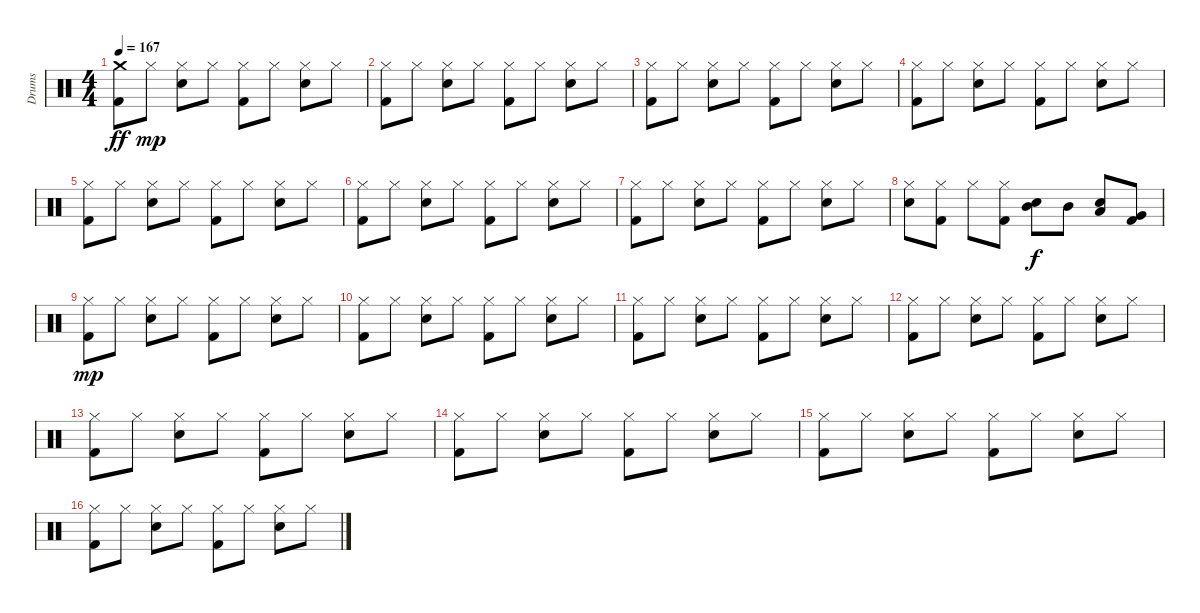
\track ("Drums" "Drums") {instrument percussion}
\staff {score}
\articulation defaults
\ts (4 4)
\tempo 167
\clef neutral
\ks c
("Crash medium (hit)" "Kick (hit) 2").8{dy ff} "Hi-Hat (closed)".8{dy mp} ("Hi-Hat (closed)" "Snare (hit) 2").8 "Hi-Hat (closed)".8 ("Hi-Hat (closed)" "Kick (hit) 2").8 "Hi-Hat (closed)".8 ("Hi-Hat (closed)" "Snare (hit) 2").8 "Hi-Hat (closed)".8 |
("Hi-Hat (closed)" "Kick (hit) 2").8 "Hi-Hat (closed)".8 ("Hi-Hat (closed)" "Snare (hit) 2").8 "Hi-Hat (closed)".8 ("Hi-Hat (closed)" "Kick (hit) 2").8 "Hi-Hat (closed)".8 ("Hi-Hat (closed)" "Snare (hit) 2").8 "Hi-Hat (closed)".8 |
("Hi-Hat (closed)" "Kick (hit) 2").8 "Hi-Hat (closed)".8 ("Hi-Hat (closed)" "Snare (hit) 2").8 "Hi-Hat (closed)".8 ("Hi-Hat (closed)" "Kick (hit) 2").8 "Hi-Hat (closed)".8 ("Hi-Hat (closed)" "Snare (hit) 2").8 "Hi-Hat (closed)".8 |
("Hi-Hat (closed)" "Kick (hit) 2").8 "Hi-Hat (closed)".8 ("Hi-Hat (closed)" "Snare (hit) 2").8 "Hi-Hat (closed)".8 ("Hi-Hat (closed)" "Kick (hit) 2").8 "Hi-Hat (closed)".8 ("Hi-Hat (closed)" "Snare (hit) 2").8 "Hi-Hat (closed)".8 |
("Hi-Hat (closed)" "Kick (hit) 2").8 "Hi-Hat (closed)".8 ("Hi-Hat (closed)" "Snare (hit) 2").8 "Hi-Hat (closed)".8 ("Hi-Hat (closed)" "Kick (hit) 2").8 "Hi-Hat (closed)".8 ("Hi-Hat (closed)" "Snare (hit) 2").8 "Hi-Hat (closed)".8 |
("Hi-Hat (closed)" "Kick (hit) 2").8 "Hi-Hat (closed)".8 ("Hi-Hat (closed)" "Snare (hit) 2").8 "Hi-Hat (closed)".8 ("Hi-Hat (closed)" "Kick (hit) 2").8 "Hi-Hat (closed)".8 ("Hi-Hat (closed)" "Snare (hit) 2").8 "Hi-Hat (closed)".8 |
("Hi-Hat (closed)" "Kick (hit) 2").8 "Hi-Hat (closed)".8 ("Hi-Hat (closed)" "Snare (hit) 2").8 "Hi-Hat (closed)".8 ("Hi-Hat (closed)" "Kick (hit) 2").8 "Hi-Hat (closed)".8 ("Hi-Hat (closed)" "Snare (hit) 2").8 "Hi-Hat (closed)".8 |
("Hi-Hat (closed)" "Snare (hit) 2").8 ("Hi-Hat (closed)" "Kick (hit) 2").8 "Hi-Hat (closed)".8 ("Hi-Hat (closed)" "Kick (hit) 2").8 ("Mid Tom (hit)" "Snare (hit) 2").8{dy f} "Mid Tom (hit)".8 ("Low Tom (hit)" "Snare (hit) 2").8 ("Very Low Tom (hit)" "Kick (hit) 2").8 |
("Hi-Hat (closed)" "Kick (hit) 2").8{dy mp} "Hi-Hat (closed)".8 ("Hi-Hat (closed)" "Snare (hit) 2").8 "Hi-Hat (closed)".8 ("Hi-Hat (closed)" "Kick (hit) 2").8 "Hi-Hat (closed)".8 ("Hi-Hat (closed)" "Snare (hit) 2").8 "Hi-Hat (closed)".8 |
("Hi-Hat (closed)" "Kick (hit) 2").8 "Hi-Hat (closed)".8 ("Hi-Hat (closed)" "Snare (hit) 2").8 "Hi-Hat (closed)".8 ("Hi-Hat (closed)" "Kick (hit) 2").8 "Hi-Hat (closed)".8 ("Hi-Hat (closed)" "Snare (hit) 2").8 "Hi-Hat (closed)".8 |
("Hi-Hat (closed)" "Kick (hit) 2").8 "Hi-Hat (closed)".8 ("Hi-Hat (closed)" "Snare (hit) 2").8 "Hi-Hat (closed)".8 ("Hi-Hat (closed)" "Kick (hit) 2").8 "Hi-Hat (closed)".8 ("Hi-Hat (closed)" "Snare (hit) 2").8 "Hi-Hat (closed)".8 |
("Hi-Hat (closed)" "Kick (hit) 2").8 "Hi-Hat (closed)".8 ("Hi-Hat (closed)" "Snare (hit) 2").8 "Hi-Hat (closed)".8 ("Hi-Hat (closed)" "Kick (hit) 2").8 "Hi-Hat (closed)".8 ("Hi-Hat (closed)" "Snare (hit) 2").8 "Hi-Hat (closed)".8 |
("Hi-Hat (closed)" "Kick (hit) 2").8 "Hi-Hat (closed)".8 ("Hi-Hat (closed)" "Snare (hit) 2").8 "Hi-Hat (closed)".8 ("Hi-Hat (closed)" "Kick (hit) 2").8 "Hi-Hat (closed)".8 ("Hi-Hat (closed)" "Snare (hit) 2").8 "Hi-Hat (closed)".8 |
("Hi-Hat (closed)" "Kick (hit) 2").8 "Hi-Hat (closed)".8 ("Hi-Hat (closed)" "Snare (hit) 2").8 "Hi-Hat (closed)".8 ("Hi-Hat (closed)" "Kick (hit) 2").8 "Hi-Hat (closed)".8 ("Hi-Hat (closed)" "Snare (hit) 2").8 "Hi-Hat (closed)".8 |
("Hi-Hat (closed)" "Kick (hit) 2").8 "Hi-Hat (closed)".8 ("Hi-Hat (closed)" "Snare (hit) 2").8 "Hi-Hat (closed)".8 ("Hi-Hat (closed)" "Kick (hit) 2").8 "Hi-Hat (closed)".8 ("Hi-Hat (closed)" "Snare (hit) 2").8 "Hi-Hat (closed)".8 |
("Hi-Hat (closed)" "Kick (hit) 2").8 "Hi-Hat (closed)".8 ("Hi-Hat (closed)" "Snare (hit) 2").8 "Hi-Hat (closed)".8 ("Hi-Hat (closed)" "Kick (hit) 2").8 "Hi-Hat (closed)".8 ("Hi-Hat (closed)" "Snare (hit) 2").8 "Hi-Hat (closed)".8
